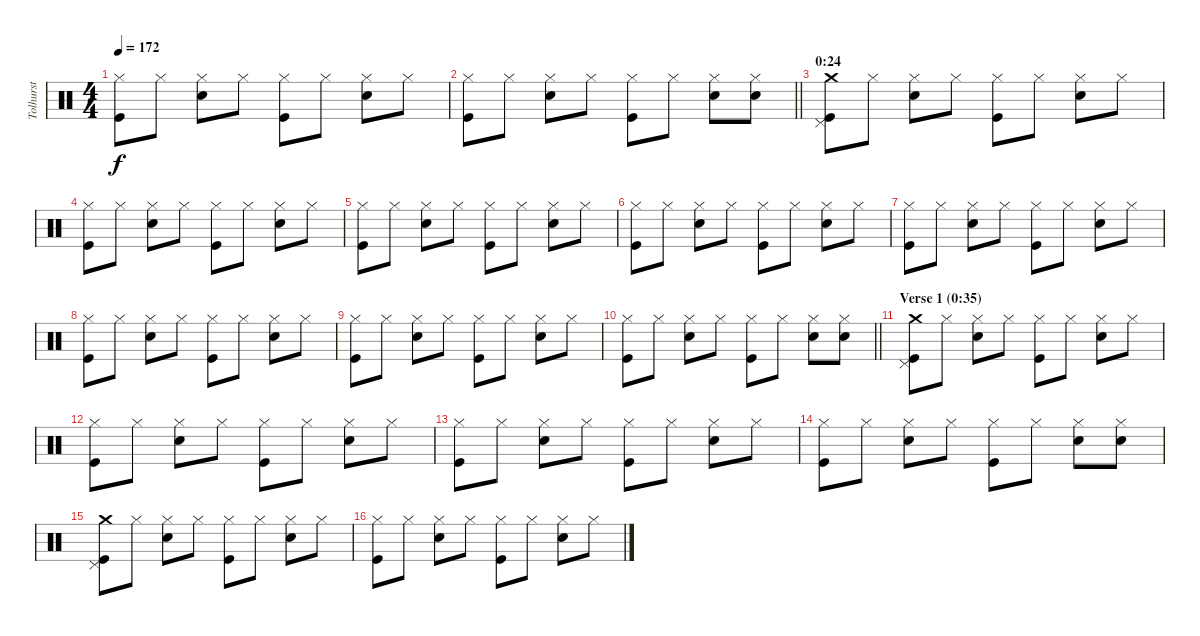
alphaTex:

\track ("Tolhurst" "Tolhurst") {instrument percussion}
\staff {score}
\articulation defaults
\ts (4 4)
\tempo 172
\clef neutral
\ks c
("Hi-Hat (closed)" "Kick (hit)").8{dy f} "Hi-Hat (closed)".8 ("Hi-Hat (closed)" "Snare (hit) 2").8 "Hi-Hat (closed)".8 ("Hi-Hat (closed)" "Kick (hit)").8 "Hi-Hat (closed)".8 ("Hi-Hat (closed)" "Snare (hit) 2").8 "Hi-Hat (closed)".8 |
\barLineRight lightlight
("Hi-Hat (closed)" "Kick (hit)").8 "Hi-Hat (closed)".8 ("Hi-Hat (closed)" "Snare (hit) 2").8 "Hi-Hat (closed)".8 ("Hi-Hat (closed)" "Kick (hit)").8 "Hi-Hat (closed)".8 ("Hi-Hat (closed)" "Snare (hit) 2").8 ("Hi-Hat (closed)" "Snare (hit) 2").8 |
\section ("" "0:24")
("Crash medium (hit)" "Pedal Hi-Hat (hit)" "Kick (hit)").8 "Hi-Hat (closed)".8 ("Hi-Hat (closed)" "Snare (hit) 2").8 "Hi-Hat (closed)".8 ("Hi-Hat (closed)" "Kick (hit)").8 "Hi-Hat (closed)".8 ("Hi-Hat (closed)" "Snare (hit) 2").8 "Hi-Hat (closed)".8 |
("Hi-Hat (closed)" "Kick (hit)").8 "Hi-Hat (closed)".8 ("Hi-Hat (closed)" "Snare (hit) 2").8 "Hi-Hat (closed)".8 ("Hi-Hat (closed)" "Kick (hit)").8 "Hi-Hat (closed)".8 ("Hi-Hat (closed)" "Snare (hit) 2").8 "Hi-Hat (closed)".8 |
("Hi-Hat (closed)" "Kick (hit)").8 "Hi-Hat (closed)".8 ("Hi-Hat (closed)" "Snare (hit) 2").8 "Hi-Hat (closed)".8 ("Hi-Hat (closed)" "Kick (hit)").8 "Hi-Hat (closed)".8 ("Hi-Hat (closed)" "Snare (hit) 2").8 "Hi-Hat (closed)".8 |
("Hi-Hat (closed)" "Kick (hit)").8 "Hi-Hat (closed)".8 ("Hi-Hat (closed)" "Snare (hit) 2").8 "Hi-Hat (closed)".8 ("Hi-Hat (closed)" "Kick (hit)").8 "Hi-Hat (closed)".8 ("Hi-Hat (closed)" "Snare (hit) 2").8 "Hi-Hat (closed)".8 |
("Hi-Hat (closed)" "Kick (hit)").8 "Hi-Hat (closed)".8 ("Hi-Hat (closed)" "Snare (hit) 2").8 "Hi-Hat (closed)".8 ("Hi-Hat (closed)" "Kick (hit)").8 "Hi-Hat (closed)".8 ("Hi-Hat (closed)" "Snare (hit) 2").8 "Hi-Hat (closed)".8 |
("Hi-Hat (closed)" "Kick (hit)").8 "Hi-Hat (closed)".8 ("Hi-Hat (closed)" "Snare (hit) 2").8 "Hi-Hat (closed)".8 ("Hi-Hat (closed)" "Kick (hit)").8 "Hi-Hat (closed)".8 ("Hi-Hat (closed)" "Snare (hit) 2").8 "Hi-Hat (closed)".8 |
("Hi-Hat (closed)" "Kick (hit)").8 "Hi-Hat (closed)".8 ("Hi-Hat (closed)" "Snare (hit) 2").8 "Hi-Hat (closed)".8 ("Hi-Hat (closed)" "Kick (hit)").8 "Hi-Hat (closed)".8 ("Hi-Hat (closed)" "Snare (hit) 2").8 "Hi-Hat (closed)".8 |
\barLineRight lightlight
("Hi-Hat (closed)" "Kick (hit)").8 "Hi-Hat (closed)".8 ("Hi-Hat (closed)" "Snare (hit) 2").8 "Hi-Hat (closed)".8 ("Hi-Hat (closed)" "Kick (hit)").8 "Hi-Hat (closed)".8 ("Hi-Hat (closed)" "Snare (hit) 2").8 ("Hi-Hat (closed)" "Snare (hit) 2").8 |
\section ("" "Verse 1 (0:35)")
("Crash medium (hit)" "Pedal Hi-Hat (hit)" "Kick (hit)").8 "Hi-Hat (closed)".8 ("Hi-Hat (closed)" "Snare (hit) 2").8 "Hi-Hat (closed)".8 ("Hi-Hat (closed)" "Kick (hit)").8 "Hi-Hat (closed)".8 ("Hi-Hat (closed)" "Snare (hit) 2").8 "Hi-Hat (closed)".8 |
("Hi-Hat (closed)" "Kick (hit)").8 "Hi-Hat (closed)".8 ("Hi-Hat (closed)" "Snare (hit) 2").8 "Hi-Hat (closed)".8 ("Hi-Hat (closed)" "Kick (hit)").8 "Hi-Hat (closed)".8 ("Hi-Hat (closed)" "Snare (hit) 2").8 "Hi-Hat (closed)".8 |
("Hi-Hat (closed)" "Kick (hit)").8 "Hi-Hat (closed)".8 ("Hi-Hat (closed)" "Snare (hit) 2").8 "Hi-Hat (closed)".8 ("Hi-Hat (closed)" "Kick (hit)").8 "Hi-Hat (closed)".8 ("Hi-Hat (closed)" "Snare (hit) 2").8 "Hi-Hat (closed)".8 |
("Hi-Hat (closed)" "Kick (hit)").8 "Hi-Hat (closed)".8 ("Hi-Hat (closed)" "Snare (hit) 2").8 "Hi-Hat (closed)".8 ("Hi-Hat (closed)" "Kick (hit)").8 "Hi-Hat (closed)".8 ("Hi-Hat (closed)" "Snare (hit) 2").8 ("Hi-Hat (closed)" "Snare (hit) 2").8 |
("Crash medium (hit)" "Pedal Hi-Hat (hit)" "Kick (hit)").8 "Hi-Hat (closed)".8 ("Hi-Hat (closed)" "Snare (hit) 2").8 "Hi-Hat (closed)".8 ("Hi-Hat (closed)" "Kick (hit)").8 "Hi-Hat (closed)".8 ("Hi-Hat (closed)" "Snare (hit) 2").8 "Hi-Hat (closed)".8 |
("Hi-Hat (closed)" "Kick (hit)").8 "Hi-Hat (closed)".8 ("Hi-Hat (closed)" "Snare (hit) 2").8 "Hi-Hat (closed)".8 ("Hi-Hat (closed)" "Kick (hit)").8 "Hi-Hat (closed)".8 ("Hi-Hat (closed)" "Snare (hit) 2").8 "Hi-Hat (closed)".8
